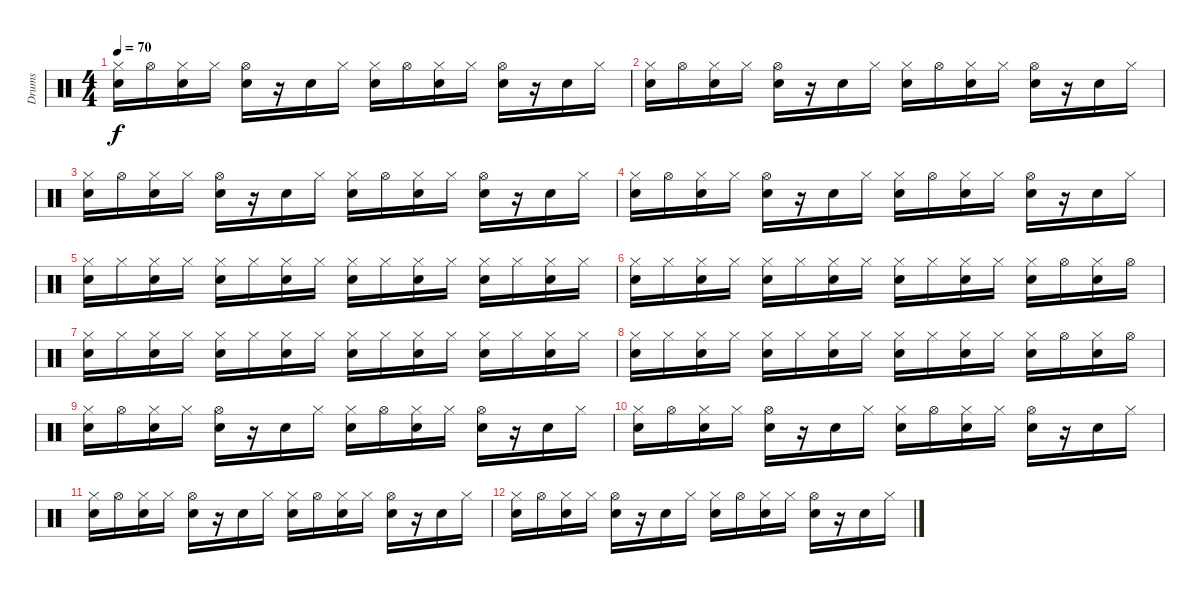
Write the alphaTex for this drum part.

\track ("Drums" "Drums") {instrument percussion}
\staff {score}
\articulation defaults
\ts (4 4)
\tempo 70
\clef neutral
\ks c
("Hi-Hat (closed)" "Electric Snare (hit)").16{dy f} "Hi-Hat (open)".16 ("Hi-Hat (closed)" "Electric Snare (hit)").16 "Hi-Hat (closed)".16 ("Hi-Hat (open)" "Electric Snare (hit)").16 r.16 "Electric Snare (hit)".16 "Hi-Hat (closed)".16 ("Hi-Hat (closed)" "Electric Snare (hit)").16 "Hi-Hat (open)".16 ("Hi-Hat (closed)" "Electric Snare (hit)").16 "Hi-Hat (closed)".16 ("Hi-Hat (open)" "Electric Snare (hit)").16 r.16 "Electric Snare (hit)".16 "Hi-Hat (closed)".16 |
("Hi-Hat (closed)" "Electric Snare (hit)").16 "Hi-Hat (open)".16 ("Hi-Hat (closed)" "Electric Snare (hit)").16 "Hi-Hat (closed)".16 ("Hi-Hat (open)" "Electric Snare (hit)").16 r.16 "Electric Snare (hit)".16 "Hi-Hat (closed)".16 ("Hi-Hat (closed)" "Electric Snare (hit)").16 "Hi-Hat (open)".16 ("Hi-Hat (closed)" "Electric Snare (hit)").16 "Hi-Hat (closed)".16 ("Hi-Hat (open)" "Electric Snare (hit)").16 r.16 "Electric Snare (hit)".16 "Hi-Hat (closed)".16 |
("Hi-Hat (closed)" "Electric Snare (hit)").16 "Hi-Hat (open)".16 ("Hi-Hat (closed)" "Electric Snare (hit)").16 "Hi-Hat (closed)".16 ("Hi-Hat (open)" "Electric Snare (hit)").16 r.16 "Electric Snare (hit)".16 "Hi-Hat (closed)".16 ("Hi-Hat (closed)" "Electric Snare (hit)").16 "Hi-Hat (open)".16 ("Hi-Hat (closed)" "Electric Snare (hit)").16 "Hi-Hat (closed)".16 ("Hi-Hat (open)" "Electric Snare (hit)").16 r.16 "Electric Snare (hit)".16 "Hi-Hat (closed)".16 |
("Hi-Hat (closed)" "Electric Snare (hit)").16 "Hi-Hat (open)".16 ("Hi-Hat (closed)" "Electric Snare (hit)").16 "Hi-Hat (closed)".16 ("Hi-Hat (open)" "Electric Snare (hit)").16 r.16 "Electric Snare (hit)".16 "Hi-Hat (closed)".16 ("Hi-Hat (closed)" "Electric Snare (hit)").16 "Hi-Hat (open)".16 ("Hi-Hat (closed)" "Electric Snare (hit)").16 "Hi-Hat (closed)".16 ("Hi-Hat (open)" "Electric Snare (hit)").16 r.16 "Electric Snare (hit)".16 "Hi-Hat (closed)".16 |
("Hi-Hat (closed)" "Electric Snare (hit)").16 "Hi-Hat (closed)".16 ("Hi-Hat (closed)" "Electric Snare (hit)").16 "Hi-Hat (closed)".16 ("Hi-Hat (closed)" "Electric Snare (hit)").16 "Hi-Hat (closed)".16 ("Hi-Hat (closed)" "Electric Snare (hit)").16 "Hi-Hat (closed)".16 ("Hi-Hat (closed)" "Electric Snare (hit)").16 "Hi-Hat (closed)".16 ("Hi-Hat (closed)" "Electric Snare (hit)").16 "Hi-Hat (closed)".16 ("Hi-Hat (closed)" "Electric Snare (hit)").16 "Hi-Hat (closed)".16 ("Hi-Hat (closed)" "Electric Snare (hit)").16 "Hi-Hat (closed)".16 |
("Hi-Hat (closed)" "Electric Snare (hit)").16 "Hi-Hat (closed)".16 ("Hi-Hat (closed)" "Electric Snare (hit)").16 "Hi-Hat (closed)".16 ("Hi-Hat (closed)" "Electric Snare (hit)").16 "Hi-Hat (closed)".16 ("Hi-Hat (closed)" "Electric Snare (hit)").16 "Hi-Hat (closed)".16 ("Hi-Hat (closed)" "Electric Snare (hit)").16 "Hi-Hat (closed)".16 ("Hi-Hat (closed)" "Electric Snare (hit)").16 "Hi-Hat (closed)".16 ("Hi-Hat (closed)" "Electric Snare (hit)").16 "Hi-Hat (open)".16 ("Hi-Hat (closed)" "Electric Snare (hit)").16 "Hi-Hat (open)".16 |
("Hi-Hat (closed)" "Electric Snare (hit)").16{volume 5} "Hi-Hat (closed)".16 ("Hi-Hat (closed)" "Electric Snare (hit)").16 "Hi-Hat (closed)".16 ("Hi-Hat (closed)" "Electric Snare (hit)").16 "Hi-Hat (closed)".16 ("Hi-Hat (closed)" "Electric Snare (hit)").16 "Hi-Hat (closed)".16 ("Hi-Hat (closed)" "Electric Snare (hit)").16 "Hi-Hat (closed)".16 ("Hi-Hat (closed)" "Electric Snare (hit)").16 "Hi-Hat (closed)".16 ("Hi-Hat (closed)" "Electric Snare (hit)").16 "Hi-Hat (closed)".16 ("Hi-Hat (closed)" "Electric Snare (hit)").16 "Hi-Hat (closed)".16 |
("Hi-Hat (closed)" "Electric Snare (hit)").16 "Hi-Hat (closed)".16 ("Hi-Hat (closed)" "Electric Snare (hit)").16 "Hi-Hat (closed)".16 ("Hi-Hat (closed)" "Electric Snare (hit)").16 "Hi-Hat (closed)".16 ("Hi-Hat (closed)" "Electric Snare (hit)").16 "Hi-Hat (closed)".16 ("Hi-Hat (closed)" "Electric Snare (hit)").16 "Hi-Hat (closed)".16 ("Hi-Hat (closed)" "Electric Snare (hit)").16 "Hi-Hat (closed)".16 ("Hi-Hat (closed)" "Electric Snare (hit)").16 "Hi-Hat (open)".16 ("Hi-Hat (closed)" "Electric Snare (hit)").16 "Hi-Hat (open)".16 |
("Hi-Hat (closed)" "Electric Snare (hit)").16 "Hi-Hat (open)".16 ("Hi-Hat (closed)" "Electric Snare (hit)").16 "Hi-Hat (closed)".16 ("Hi-Hat (open)" "Electric Snare (hit)").16 r.16 "Electric Snare (hit)".16 "Hi-Hat (closed)".16 ("Hi-Hat (closed)" "Electric Snare (hit)").16 "Hi-Hat (open)".16 ("Hi-Hat (closed)" "Electric Snare (hit)").16 "Hi-Hat (closed)".16 ("Hi-Hat (open)" "Electric Snare (hit)").16 r.16 "Electric Snare (hit)".16 "Hi-Hat (closed)".16 |
("Hi-Hat (closed)" "Electric Snare (hit)").16 "Hi-Hat (open)".16 ("Hi-Hat (closed)" "Electric Snare (hit)").16 "Hi-Hat (closed)".16 ("Hi-Hat (open)" "Electric Snare (hit)").16 r.16 "Electric Snare (hit)".16 "Hi-Hat (closed)".16 ("Hi-Hat (closed)" "Electric Snare (hit)").16 "Hi-Hat (open)".16 ("Hi-Hat (closed)" "Electric Snare (hit)").16 "Hi-Hat (closed)".16 ("Hi-Hat (open)" "Electric Snare (hit)").16 r.16 "Electric Snare (hit)".16 "Hi-Hat (closed)".16 |
("Hi-Hat (closed)" "Electric Snare (hit)").16{volume 0} "Hi-Hat (open)".16 ("Hi-Hat (closed)" "Electric Snare (hit)").16 "Hi-Hat (closed)".16 ("Hi-Hat (open)" "Electric Snare (hit)").16 r.16 "Electric Snare (hit)".16 "Hi-Hat (closed)".16 ("Hi-Hat (closed)" "Electric Snare (hit)").16 "Hi-Hat (open)".16 ("Hi-Hat (closed)" "Electric Snare (hit)").16 "Hi-Hat (closed)".16 ("Hi-Hat (open)" "Electric Snare (hit)").16 r.16 "Electric Snare (hit)".16 "Hi-Hat (closed)".16 |
("Hi-Hat (closed)" "Electric Snare (hit)").16 "Hi-Hat (open)".16 ("Hi-Hat (closed)" "Electric Snare (hit)").16 "Hi-Hat (closed)".16 ("Hi-Hat (open)" "Electric Snare (hit)").16 r.16 "Electric Snare (hit)".16 "Hi-Hat (closed)".16 ("Hi-Hat (closed)" "Electric Snare (hit)").16 "Hi-Hat (open)".16 ("Hi-Hat (closed)" "Electric Snare (hit)").16 "Hi-Hat (closed)".16 ("Hi-Hat (open)" "Electric Snare (hit)").16 r.16 "Electric Snare (hit)".16 "Hi-Hat (closed)".16
